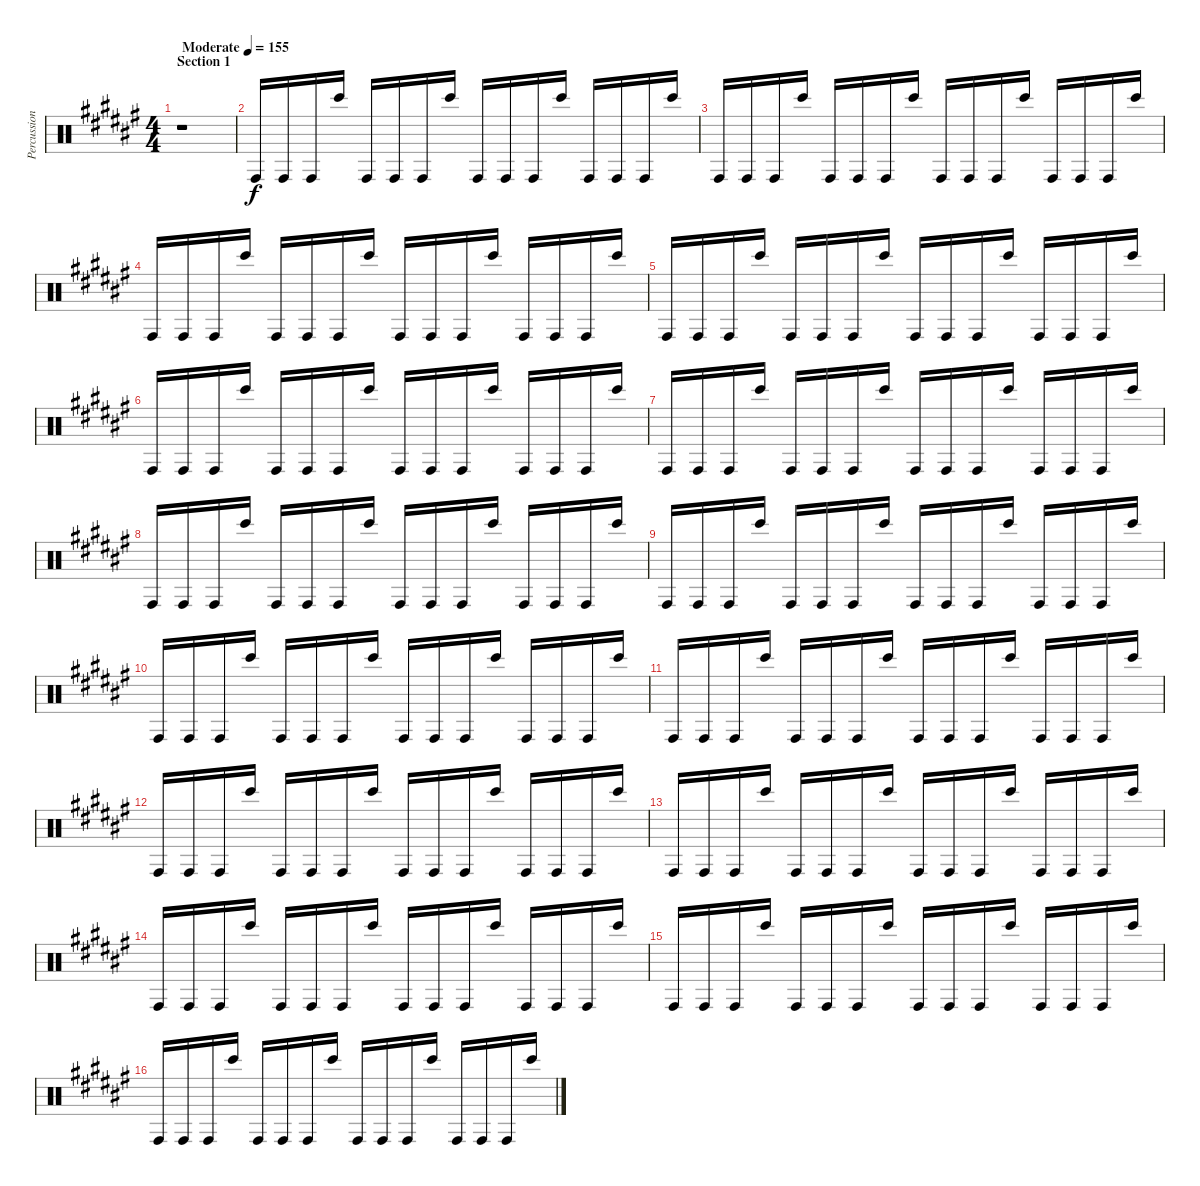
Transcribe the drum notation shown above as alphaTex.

\track ("Percussion" "Percussion") {instrument percussion}
\staff {score}
\articulation defaults
\ts (4 4)
\section ("" "Section 1")
\tempo (155 "Moderate")
\clef neutral
\ks f#
r.1{dy f} |
"Conga high (hit)".16 "Conga high (hit)".16 "Conga high (hit)".16 "Bongo High (hit)".16 "Conga high (hit)".16 "Conga high (hit)".16 "Conga high (hit)".16 "Bongo High (hit)".16 "Conga high (hit)".16 "Conga high (hit)".16 "Conga high (hit)".16 "Bongo High (hit)".16 "Conga high (hit)".16 "Conga high (hit)".16 "Conga high (hit)".16 "Bongo High (hit)".16 |
"Conga high (hit)".16 "Conga high (hit)".16 "Conga high (hit)".16 "Bongo High (hit)".16 "Conga high (hit)".16 "Conga high (hit)".16 "Conga high (hit)".16 "Bongo High (hit)".16 "Conga high (hit)".16 "Conga high (hit)".16 "Conga high (hit)".16 "Bongo High (hit)".16 "Conga high (hit)".16 "Conga high (hit)".16 "Conga high (hit)".16 "Bongo High (hit)".16 |
"Conga high (hit)".16 "Conga high (hit)".16 "Conga high (hit)".16 "Bongo High (hit)".16 "Conga high (hit)".16 "Conga high (hit)".16 "Conga high (hit)".16 "Bongo High (hit)".16 "Conga high (hit)".16 "Conga high (hit)".16 "Conga high (hit)".16 "Bongo High (hit)".16 "Conga high (hit)".16 "Conga high (hit)".16 "Conga high (hit)".16 "Bongo High (hit)".16 |
"Conga high (hit)".16 "Conga high (hit)".16 "Conga high (hit)".16 "Bongo High (hit)".16 "Conga high (hit)".16 "Conga high (hit)".16 "Conga high (hit)".16 "Bongo High (hit)".16 "Conga high (hit)".16 "Conga high (hit)".16 "Conga high (hit)".16 "Bongo High (hit)".16 "Conga high (hit)".16 "Conga high (hit)".16 "Conga high (hit)".16 "Bongo High (hit)".16 |
"Conga high (hit)".16 "Conga high (hit)".16 "Conga high (hit)".16 "Bongo High (hit)".16 "Conga high (hit)".16 "Conga high (hit)".16 "Conga high (hit)".16 "Bongo High (hit)".16 "Conga high (hit)".16 "Conga high (hit)".16 "Conga high (hit)".16 "Bongo High (hit)".16 "Conga high (hit)".16 "Conga high (hit)".16 "Conga high (hit)".16 "Bongo High (hit)".16 |
"Conga high (hit)".16 "Conga high (hit)".16 "Conga high (hit)".16 "Bongo High (hit)".16 "Conga high (hit)".16 "Conga high (hit)".16 "Conga high (hit)".16 "Bongo High (hit)".16 "Conga high (hit)".16 "Conga high (hit)".16 "Conga high (hit)".16 "Bongo High (hit)".16 "Conga high (hit)".16 "Conga high (hit)".16 "Conga high (hit)".16 "Bongo High (hit)".16 |
"Conga high (hit)".16 "Conga high (hit)".16 "Conga high (hit)".16 "Bongo High (hit)".16 "Conga high (hit)".16 "Conga high (hit)".16 "Conga high (hit)".16 "Bongo High (hit)".16 "Conga high (hit)".16 "Conga high (hit)".16 "Conga high (hit)".16 "Bongo High (hit)".16 "Conga high (hit)".16 "Conga high (hit)".16 "Conga high (hit)".16 "Bongo High (hit)".16 |
"Conga high (hit)".16 "Conga high (hit)".16 "Conga high (hit)".16 "Bongo High (hit)".16 "Conga high (hit)".16 "Conga high (hit)".16 "Conga high (hit)".16 "Bongo High (hit)".16 "Conga high (hit)".16 "Conga high (hit)".16 "Conga high (hit)".16 "Bongo High (hit)".16 "Conga high (hit)".16 "Conga high (hit)".16 "Conga high (hit)".16 "Bongo High (hit)".16 |
"Conga high (hit)".16 "Conga high (hit)".16 "Conga high (hit)".16 "Bongo High (hit)".16 "Conga high (hit)".16 "Conga high (hit)".16 "Conga high (hit)".16 "Bongo High (hit)".16 "Conga high (hit)".16 "Conga high (hit)".16 "Conga high (hit)".16 "Bongo High (hit)".16 "Conga high (hit)".16 "Conga high (hit)".16 "Conga high (hit)".16 "Bongo High (hit)".16 |
"Conga high (hit)".16 "Conga high (hit)".16 "Conga high (hit)".16 "Bongo High (hit)".16 "Conga high (hit)".16 "Conga high (hit)".16 "Conga high (hit)".16 "Bongo High (hit)".16 "Conga high (hit)".16 "Conga high (hit)".16 "Conga high (hit)".16 "Bongo High (hit)".16 "Conga high (hit)".16 "Conga high (hit)".16 "Conga high (hit)".16 "Bongo High (hit)".16 |
"Conga high (hit)".16 "Conga high (hit)".16 "Conga high (hit)".16 "Bongo High (hit)".16 "Conga high (hit)".16 "Conga high (hit)".16 "Conga high (hit)".16 "Bongo High (hit)".16 "Conga high (hit)".16 "Conga high (hit)".16 "Conga high (hit)".16 "Bongo High (hit)".16 "Conga high (hit)".16 "Conga high (hit)".16 "Conga high (hit)".16 "Bongo High (hit)".16 |
"Conga high (hit)".16 "Conga high (hit)".16 "Conga high (hit)".16 "Bongo High (hit)".16 "Conga high (hit)".16 "Conga high (hit)".16 "Conga high (hit)".16 "Bongo High (hit)".16 "Conga high (hit)".16 "Conga high (hit)".16 "Conga high (hit)".16 "Bongo High (hit)".16 "Conga high (hit)".16 "Conga high (hit)".16 "Conga high (hit)".16 "Bongo High (hit)".16 |
"Conga high (hit)".16 "Conga high (hit)".16 "Conga high (hit)".16 "Bongo High (hit)".16 "Conga high (hit)".16 "Conga high (hit)".16 "Conga high (hit)".16 "Bongo High (hit)".16 "Conga high (hit)".16 "Conga high (hit)".16 "Conga high (hit)".16 "Bongo High (hit)".16 "Conga high (hit)".16 "Conga high (hit)".16 "Conga high (hit)".16 "Bongo High (hit)".16 |
"Conga high (hit)".16 "Conga high (hit)".16 "Conga high (hit)".16 "Bongo High (hit)".16 "Conga high (hit)".16 "Conga high (hit)".16 "Conga high (hit)".16 "Bongo High (hit)".16 "Conga high (hit)".16 "Conga high (hit)".16 "Conga high (hit)".16 "Bongo High (hit)".16 "Conga high (hit)".16 "Conga high (hit)".16 "Conga high (hit)".16 "Bongo High (hit)".16 |
"Conga high (hit)".16 "Conga high (hit)".16 "Conga high (hit)".16 "Bongo High (hit)".16 "Conga high (hit)".16 "Conga high (hit)".16 "Conga high (hit)".16 "Bongo High (hit)".16 "Conga high (hit)".16 "Conga high (hit)".16 "Conga high (hit)".16 "Bongo High (hit)".16 "Conga high (hit)".16 "Conga high (hit)".16 "Conga high (hit)".16 "Bongo High (hit)".16
